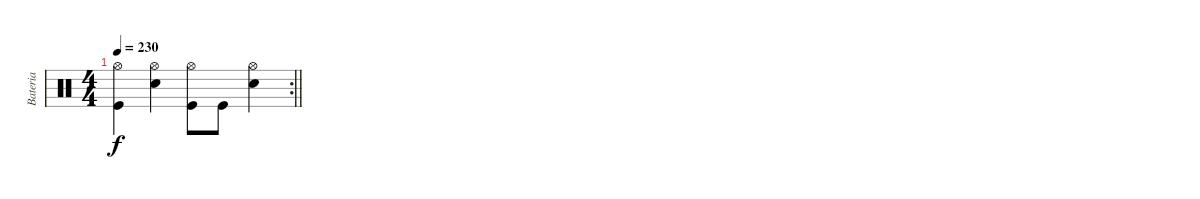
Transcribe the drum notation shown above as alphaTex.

\track ("Bateria" "Bateria") {instrument percussion}
\staff {score}
\articulation defaults
\rc 2
\ts (4 4)
\tempo 230
\clef neutral
\barLineRight lightlight
\ks c
("Hi-Hat (open)" "Kick (hit)").4{dy f} ("Hi-Hat (open)" "Snare (hit) 2").4 ("Hi-Hat (open)" "Kick (hit)").8 "Kick (hit)".8 ("Hi-Hat (open)" "Snare (hit) 2").4
